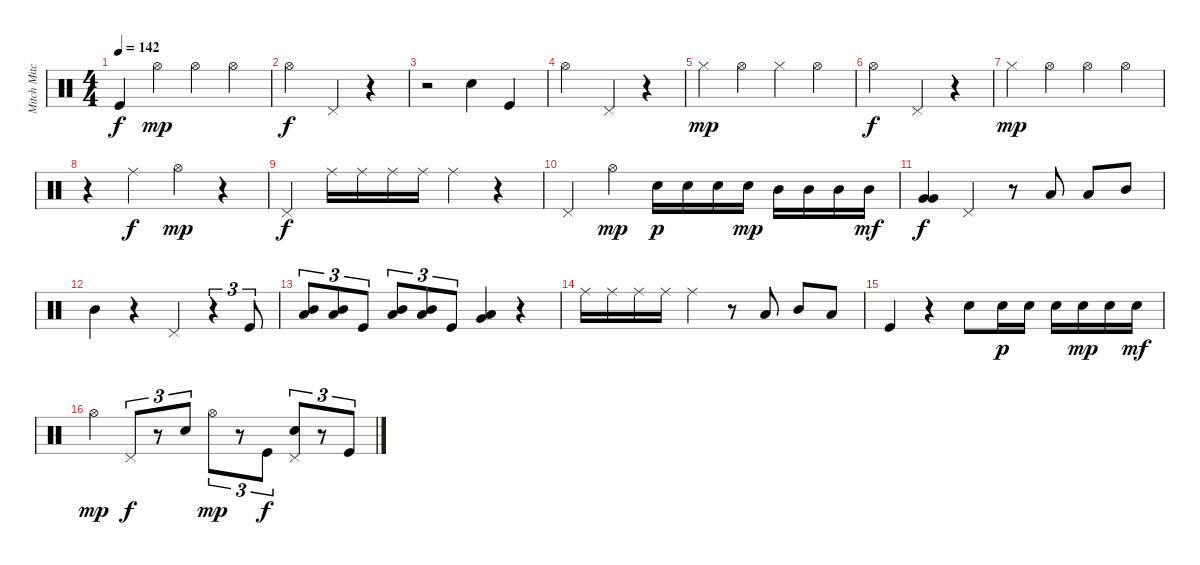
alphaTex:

\track ("Mitch Mitchell" "Mitch Mitc") {instrument percussion}
\staff {score}
\articulation defaults
\ts (4 4)
\tempo 142
\clef neutral
\ks c "Kick (hit)".4{dy f} "Hi-Hat (open)".4{dy mp} "Hi-Hat (open)".4 "Hi-Hat (open)".4
|
"Hi-Hat (open)".2{dy f} "Pedal Hi-Hat (hit)".4 r.4 |
r.2 "Electric Snare (hit)".4 "Kick (hit)".4 |
"Hi-Hat (open)".2 "Pedal Hi-Hat (hit)".4 r.4 |
"Hi-Hat (closed)".4{dy mp} "Hi-Hat (open)".4 "Hi-Hat (closed)".4 "Hi-Hat (open)".4 |
"Hi-Hat (open)".2{dy f} "Pedal Hi-Hat (hit)".4 r.4 |
"Hi-Hat (closed)".4{dy mp} "Hi-Hat (open)".4 "Hi-Hat (open)".4 "Hi-Hat (open)".4 |
r.4 "Ride (middle)".4{dy f} "Hi-Hat (open)".4{dy mp} r.4 |
"Pedal Hi-Hat (hit)".4{dy f} "Ride (middle)".16 "Ride (middle)".16 "Ride (middle)".16 "Ride (middle)".16 "Ride (middle)".4 r.4 |
"Pedal Hi-Hat (hit)".4 "Hi-Hat (open)".4{dy mp} "Electric Snare (hit)".16{dy p} "Electric Snare (hit)".16 "Electric Snare (hit)".16 "Electric Snare (hit)".16{dy mp} "Mid Tom (hit)".16 "Mid Tom (hit)".16 "Mid Tom (hit)".16 "Mid Tom (hit)".16{dy mf} |
("Very Low Tom (hit)" "Very Low Tom (hit)").4{dy f} "Pedal Hi-Hat (hit)".4 r.8 "Low Tom (hit)".8 "Low Tom (hit)".8 "Mid Tom (hit)".8 |
"Mid Tom (hit)".4 r.4 "Pedal Hi-Hat (hit)".4 r.4{tu (3 2)} "Kick (hit)".8{tu (3 2)} |
("Mid Tom (hit)" "Low Tom (hit)").8{tu (3 2)} ("Mid Tom (hit)" "Low Tom (hit)").8{tu (3 2)} "Kick (hit)".8{tu (3 2)} ("Mid Tom (hit)" "Low Tom (hit)").8{tu (3 2)} ("Mid Tom (hit)" "Low Tom (hit)").8{tu (3 2)} "Kick (hit)".8{tu (3 2)} ("Low Tom (hit)" "Very Low Tom (hit)").4 r.4 |
"Ride (middle)".16 "Ride (middle)".16 "Ride (middle)".16 "Ride (middle)".16 "Ride (middle)".4 r.8 "Low Tom (hit)".8 "Mid Tom (hit)".8 "Low Tom (hit)".8 |
"Kick (hit)".4 r.4 "Electric Snare (hit)".8 "Electric Snare (hit)".16{dy p} "Electric Snare (hit)".16 "Electric Snare (hit)".16 "Electric Snare (hit)".16{dy mp} "Electric Snare (hit)".16 "Electric Snare (hit)".16{dy mf} |
"Hi-Hat (open)".4{dy mp} "Pedal Hi-Hat (hit)".8{tu (3 2) dy f} r.8{tu (3 2)} "Electric Snare (hit)".8{tu (3 2)} "Hi-Hat (open)".8{tu (3 2) dy mp} r.8{tu (3 2)} "Kick (hit)".8{tu (3 2) dy f} ("Pedal Hi-Hat (hit)" "Electric Snare (hit)").8{tu (3 2)} r.8{tu (3 2)} "Kick (hit)".8{tu (3 2)}
